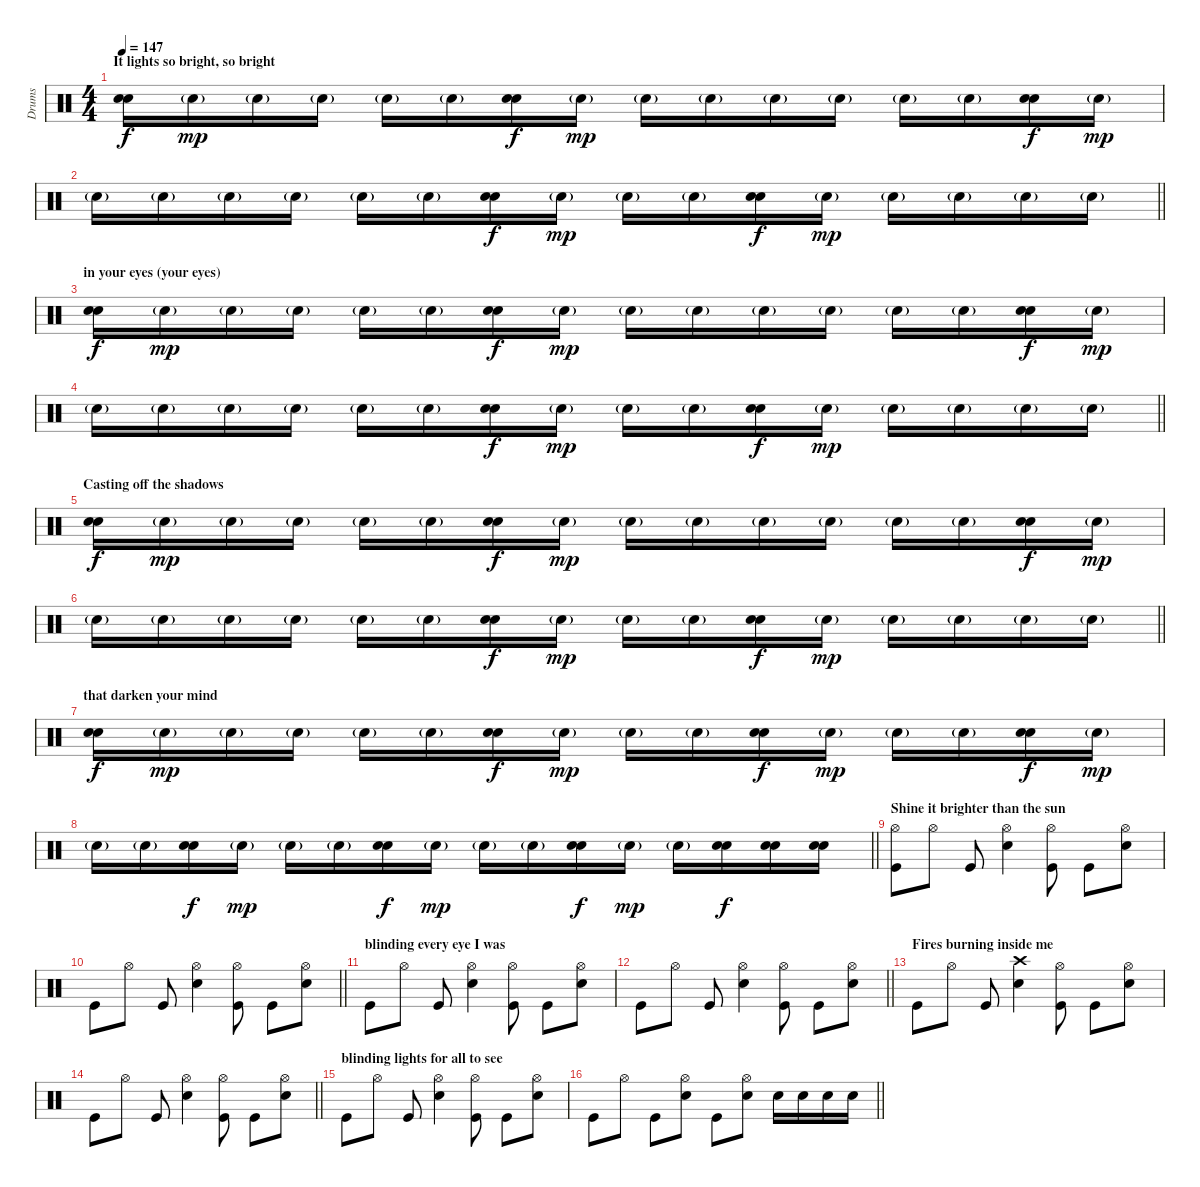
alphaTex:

\track ("Drums" "Drums") {instrument percussion}
\staff {score}
\articulation defaults
\ts (4 4)
\section ("" "It lights so bright, so bright ")
\tempo 147
\clef neutral
\ks c
("Electric Snare (hit)" "Snare (hit) 2").16{dy f} "Snare (hit) 2"{g}.16{dy mp} "Snare (hit) 2"{g}.16 "Snare (hit) 2"{g}.16 "Snare (hit) 2"{g}.16 "Snare (hit) 2"{g}.16 ("Electric Snare (hit)" "Snare (hit) 2").16{dy f} "Snare (hit) 2"{g}.16{dy mp} "Snare (hit) 2"{g}.16 "Snare (hit) 2"{g}.16 "Snare (hit) 2"{g}.16 "Snare (hit) 2"{g}.16 "Snare (hit) 2"{g}.16 "Snare (hit) 2"{g}.16 ("Electric Snare (hit)" "Snare (hit) 2").16{dy f} "Snare (hit) 2"{g}.16{dy mp} |
\barLineRight lightlight "Snare (hit) 2"{g}.16 "Snare (hit) 2"{g}.16 "Snare (hit) 2"{g}.16 "Snare (hit) 2"{g}.16 "Snare (hit) 2"{g}.16 "Snare (hit) 2"{g}.16
("Electric Snare (hit)" "Snare (hit) 2").16{dy f} "Snare (hit) 2"{g}.16{dy mp} "Snare (hit) 2"{g}.16 "Snare (hit) 2"{g}.16 ("Electric Snare (hit)" "Snare (hit) 2").16{dy f} "Snare (hit) 2"{g}.16{dy mp} "Snare (hit) 2"{g}.16 "Snare (hit) 2"{g}.16 "Snare (hit) 2"{g}.16 "Snare (hit) 2"{g}.16 |
\section ("" "in your eyes (your eyes) ")
("Electric Snare (hit)" "Snare (hit) 2").16{dy f} "Snare (hit) 2"{g}.16{dy mp} "Snare (hit) 2"{g}.16 "Snare (hit) 2"{g}.16 "Snare (hit) 2"{g}.16 "Snare (hit) 2"{g}.16 ("Electric Snare (hit)" "Snare (hit) 2").16{dy f} "Snare (hit) 2"{g}.16{dy mp} "Snare (hit) 2"{g}.16 "Snare (hit) 2"{g}.16 "Snare (hit) 2"{g}.16 "Snare (hit) 2"{g}.16 "Snare (hit) 2"{g}.16 "Snare (hit) 2"{g}.16 ("Electric Snare (hit)" "Snare (hit) 2").16{dy f} "Snare (hit) 2"{g}.16{dy mp} |
\barLineRight lightlight "Snare (hit) 2"{g}.16 "Snare (hit) 2"{g}.16 "Snare (hit) 2"{g}.16 "Snare (hit) 2"{g}.16 "Snare (hit) 2"{g}.16 "Snare (hit) 2"{g}.16
("Electric Snare (hit)" "Snare (hit) 2").16{dy f} "Snare (hit) 2"{g}.16{dy mp} "Snare (hit) 2"{g}.16 "Snare (hit) 2"{g}.16 ("Electric Snare (hit)" "Snare (hit) 2").16{dy f} "Snare (hit) 2"{g}.16{dy mp} "Snare (hit) 2"{g}.16 "Snare (hit) 2"{g}.16 "Snare (hit) 2"{g}.16 "Snare (hit) 2"{g}.16 |
\section ("" "Casting off the shadows ")
("Electric Snare (hit)" "Snare (hit) 2").16{dy f} "Snare (hit) 2"{g}.16{dy mp} "Snare (hit) 2"{g}.16 "Snare (hit) 2"{g}.16 "Snare (hit) 2"{g}.16 "Snare (hit) 2"{g}.16 ("Electric Snare (hit)" "Snare (hit) 2").16{dy f} "Snare (hit) 2"{g}.16{dy mp} "Snare (hit) 2"{g}.16 "Snare (hit) 2"{g}.16 "Snare (hit) 2"{g}.16 "Snare (hit) 2"{g}.16 "Snare (hit) 2"{g}.16 "Snare (hit) 2"{g}.16 ("Electric Snare (hit)" "Snare (hit) 2").16{dy f} "Snare (hit) 2"{g}.16{dy mp} |
\barLineRight lightlight "Snare (hit) 2"{g}.16 "Snare (hit) 2"{g}.16 "Snare (hit) 2"{g}.16 "Snare (hit) 2"{g}.16 "Snare (hit) 2"{g}.16 "Snare (hit) 2"{g}.16
("Electric Snare (hit)" "Snare (hit) 2").16{dy f} "Snare (hit) 2"{g}.16{dy mp} "Snare (hit) 2"{g}.16 "Snare (hit) 2"{g}.16 ("Electric Snare (hit)" "Snare (hit) 2").16{dy f} "Snare (hit) 2"{g}.16{dy mp} "Snare (hit) 2"{g}.16 "Snare (hit) 2"{g}.16 "Snare (hit) 2"{g}.16 "Snare (hit) 2"{g}.16 |
\section ("" "that darken your mind")
("Electric Snare (hit)" "Snare (hit) 2").16{dy f} "Snare (hit) 2"{g}.16{dy mp} "Snare (hit) 2"{g}.16 "Snare (hit) 2"{g}.16 "Snare (hit) 2"{g}.16 "Snare (hit) 2"{g}.16 ("Electric Snare (hit)" "Snare (hit) 2").16{dy f} "Snare (hit) 2"{g}.16{dy mp} "Snare (hit) 2"{g}.16 "Snare (hit) 2"{g}.16 ("Electric Snare (hit)" "Snare (hit) 2").16{dy f} "Snare (hit) 2"{g}.16{dy mp} "Snare (hit) 2"{g}.16 "Snare (hit) 2"{g}.16 ("Electric Snare (hit)" "Snare (hit) 2").16{dy f} "Snare (hit) 2"{g}.16{dy mp} |
\barLineRight lightlight "Snare (hit) 2"{g}.16 "Snare (hit) 2"{g}.16
("Electric Snare (hit)" "Snare (hit) 2").16{dy f} "Snare (hit) 2"{g}.16{dy mp} "Snare (hit) 2"{g}.16 "Snare (hit) 2"{g}.16 ("Electric Snare (hit)" "Snare (hit) 2").16{dy f} "Snare (hit) 2"{g}.16{dy mp} "Snare (hit) 2"{g}.16 "Snare (hit) 2"{g}.16 ("Electric Snare (hit)" "Snare (hit) 2").16{dy f} "Snare (hit) 2"{g}.16{dy mp} "Snare (hit) 2"{g}.16 ("Electric Snare (hit)" "Snare (hit) 2").16{dy f} ("Electric Snare (hit)" "Snare (hit) 2").16 ("Electric Snare (hit)" "Snare (hit) 2").16 |
\section ("" "Shine it brighter than the sun ")
("Hi-Hat (open)" "Kick (hit)").8 "Hi-Hat (open)".8 "Kick (hit)".8 ("Hi-Hat (open)" "Snare (hit) 2").4 ("Hi-Hat (open)" "Kick (hit)").8 "Kick (hit)".8 ("Hi-Hat (open)" "Snare (hit) 2").8 |
\barLineRight lightlight "Kick (hit)".8 "Hi-Hat (open)".8 "Kick (hit)".8
("Hi-Hat (open)" "Snare (hit) 2").4 ("Hi-Hat (open)" "Kick (hit)").8 "Kick (hit)".8 ("Hi-Hat (open)" "Snare (hit) 2").8 |
\section ("" "blinding every eye I was")
"Kick (hit)".8 "Hi-Hat (open)".8 "Kick (hit)".8 ("Hi-Hat (open)" "Snare (hit) 2").4 ("Hi-Hat (open)" "Kick (hit)").8 "Kick (hit)".8 ("Hi-Hat (open)" "Snare (hit) 2").8 |
\barLineRight lightlight "Kick (hit)".8 "Hi-Hat (open)".8 "Kick (hit)".8
("Hi-Hat (open)" "Snare (hit) 2").4 ("Hi-Hat (open)" "Kick (hit)").8 "Kick (hit)".8 ("Hi-Hat (open)" "Snare (hit) 2").8 |
\section ("" "Fires burning inside me ")
"Kick (hit)".8 "Hi-Hat (open)".8 "Kick (hit)".8 ("Crash high (hit)" "Snare (hit) 2").4 ("Hi-Hat (open)" "Kick (hit)").8 "Kick (hit)".8 ("Hi-Hat (open)" "Snare (hit) 2").8 |
\barLineRight lightlight "Kick (hit)".8 "Hi-Hat (open)".8 "Kick (hit)".8
("Hi-Hat (open)" "Snare (hit) 2").4 ("Hi-Hat (open)" "Kick (hit)").8 "Kick (hit)".8 ("Hi-Hat (open)" "Snare (hit) 2").8 |
\section ("" "blinding lights for all to see")
"Kick (hit)".8 "Hi-Hat (open)".8 "Kick (hit)".8 ("Hi-Hat (open)" "Snare (hit) 2").4 ("Hi-Hat (open)" "Kick (hit)").8 "Kick (hit)".8 ("Hi-Hat (open)" "Snare (hit) 2").8 |
\barLineRight lightlight "Kick (hit)".8 "Hi-Hat (open)".8 "Kick (hit)".8
("Hi-Hat (open)" "Snare (hit) 2").8 "Kick (hit)".8 ("Hi-Hat (open)" "Snare (hit) 2").8 "Snare (hit) 2".16 "Snare (hit) 2".16 "Snare (hit) 2".16 "Snare (hit) 2".16
